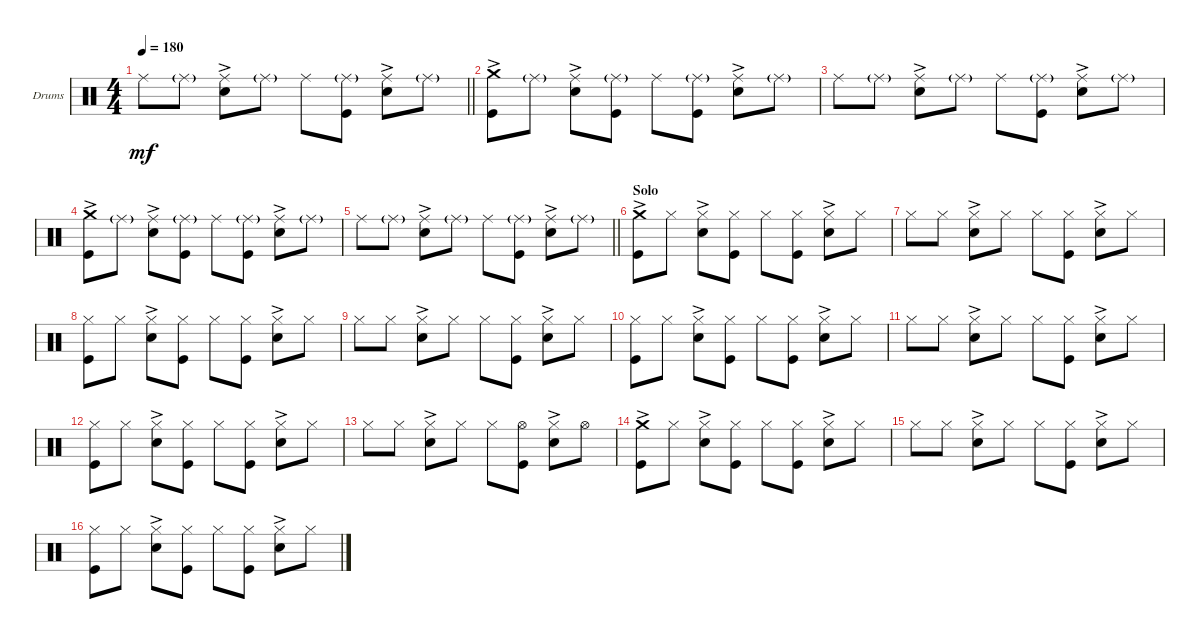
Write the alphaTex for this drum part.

\defaultSystemsLayout 4
\bracketExtendMode groupsimilarinstruments
\firstSystemTrackNameOrientation horizontal
\otherSystemsTrackNameOrientation horizontal
\track ("Will - Drumkit" "Drums") {instrument percussion}
\staff {score}
\articulation defaults
\ts (4 4)
\tempo 180
\clef neutral
\barLineRight lightlight
\ks c "Ride (middle)".8{dy mf} "Ride (middle)"{g}.8
("Ride (middle)" "Snare (hit) 2"{ac}).8 "Ride (middle)"{g}.8 "Ride (middle)".8 ("Ride (middle)"{g} "Kick (hit)").8 ("Ride (middle)" "Snare (hit) 2"{ac}).8 "Ride (middle)"{g}.8 |
("Crash medium (hit)"{ac} "Kick (hit)").8 "Ride (middle)"{g}.8 ("Ride (middle)" "Snare (hit) 2"{ac}).8 ("Ride (middle)"{g} "Kick (hit)").8 "Ride (middle)".8 ("Ride (middle)"{g} "Kick (hit)").8 ("Ride (middle)" "Snare (hit) 2"{ac}).8 "Ride (middle)"{g}.8 |
"Ride (middle)".8 "Ride (middle)"{g}.8 ("Ride (middle)" "Snare (hit) 2"{ac}).8 "Ride (middle)"{g}.8 "Ride (middle)".8 ("Ride (middle)"{g} "Kick (hit)").8 ("Ride (middle)" "Snare (hit) 2"{ac}).8 "Ride (middle)"{g}.8 |
("Kick (hit)" "Crash medium (hit)"{ac}).8 "Ride (middle)"{g}.8 ("Ride (middle)" "Snare (hit) 2"{ac}).8 ("Ride (middle)"{g} "Kick (hit)").8 "Ride (middle)".8 ("Ride (middle)"{g} "Kick (hit)").8 ("Ride (middle)" "Snare (hit) 2"{ac}).8 "Ride (middle)"{g}.8 |
\barLineRight lightlight "Ride (middle)".8 "Ride (middle)"{g}.8
("Ride (middle)" "Snare (hit) 2"{ac}).8 "Ride (middle)"{g}.8 "Ride (middle)".8 ("Ride (middle)"{g} "Kick (hit)").8 ("Ride (middle)" "Snare (hit) 2"{ac}).8 "Ride (middle)"{g}.8 |
\section ("" "Solo")
("Crash medium (hit)"{ac} "Kick (hit)").8 "Hi-Hat (closed)".8 ("Hi-Hat (closed)" "Snare (hit) 2"{ac}).8 ("Hi-Hat (closed)" "Kick (hit)").8 "Hi-Hat (closed)".8 ("Hi-Hat (closed)" "Kick (hit)").8 ("Hi-Hat (closed)" "Snare (hit) 2"{ac}).8 "Hi-Hat (closed)".8 |
"Hi-Hat (closed)".8 "Hi-Hat (closed)".8 ("Hi-Hat (closed)" "Snare (hit) 2"{ac}).8 "Hi-Hat (closed)".8 "Hi-Hat (closed)".8 ("Hi-Hat (closed)" "Kick (hit)").8 ("Hi-Hat (closed)" "Snare (hit) 2"{ac}).8 "Hi-Hat (closed)".8 |
("Kick (hit)" "Hi-Hat (closed)").8 "Hi-Hat (closed)".8 ("Hi-Hat (closed)" "Snare (hit) 2"{ac}).8 ("Hi-Hat (closed)" "Kick (hit)").8 "Hi-Hat (closed)".8 ("Hi-Hat (closed)" "Kick (hit)").8 ("Hi-Hat (closed)" "Snare (hit) 2"{ac}).8 "Hi-Hat (closed)".8 |
"Hi-Hat (closed)".8 "Hi-Hat (closed)".8 ("Hi-Hat (closed)" "Snare (hit) 2"{ac}).8 "Hi-Hat (closed)".8 "Hi-Hat (closed)".8 ("Hi-Hat (closed)" "Kick (hit)").8 ("Hi-Hat (closed)" "Snare (hit) 2"{ac}).8 "Hi-Hat (closed)".8 |
("Kick (hit)" "Hi-Hat (closed)").8 "Hi-Hat (closed)".8 ("Hi-Hat (closed)" "Snare (hit) 2"{ac}).8 ("Hi-Hat (closed)" "Kick (hit)").8 "Hi-Hat (closed)".8 ("Hi-Hat (closed)" "Kick (hit)").8 ("Hi-Hat (closed)" "Snare (hit) 2"{ac}).8 "Hi-Hat (closed)".8 |
"Hi-Hat (closed)".8 "Hi-Hat (closed)".8 ("Hi-Hat (closed)" "Snare (hit) 2"{ac}).8 "Hi-Hat (closed)".8 "Hi-Hat (closed)".8 ("Hi-Hat (closed)" "Kick (hit)").8 ("Hi-Hat (closed)" "Snare (hit) 2"{ac}).8 "Hi-Hat (closed)".8 |
("Kick (hit)" "Hi-Hat (closed)").8 "Hi-Hat (closed)".8 ("Hi-Hat (closed)" "Snare (hit) 2"{ac}).8 ("Hi-Hat (closed)" "Kick (hit)").8 "Hi-Hat (closed)".8 ("Hi-Hat (closed)" "Kick (hit)").8 ("Hi-Hat (closed)" "Snare (hit) 2"{ac}).8 "Hi-Hat (closed)".8 |
"Hi-Hat (closed)".8 "Hi-Hat (closed)".8 ("Hi-Hat (closed)" "Snare (hit) 2"{ac}).8 "Hi-Hat (closed)".8 "Hi-Hat (closed)".8 ("Hi-Hat (open)" "Kick (hit)").8 ("Hi-Hat (closed)" "Snare (hit) 2"{ac}).8 "Hi-Hat (open)".8 |
("Kick (hit)" "Crash medium (hit)"{ac}).8 "Hi-Hat (closed)".8 ("Hi-Hat (closed)" "Snare (hit) 2"{ac}).8 ("Hi-Hat (closed)" "Kick (hit)").8 "Hi-Hat (closed)".8 ("Hi-Hat (closed)" "Kick (hit)").8 ("Hi-Hat (closed)" "Snare (hit) 2"{ac}).8 "Hi-Hat (closed)".8 |
"Hi-Hat (closed)".8 "Hi-Hat (closed)".8 ("Hi-Hat (closed)" "Snare (hit) 2"{ac}).8 "Hi-Hat (closed)".8 "Hi-Hat (closed)".8 ("Hi-Hat (closed)" "Kick (hit)").8 ("Hi-Hat (closed)" "Snare (hit) 2"{ac}).8 "Hi-Hat (closed)".8 |
("Kick (hit)" "Hi-Hat (closed)").8 "Hi-Hat (closed)".8 ("Hi-Hat (closed)" "Snare (hit) 2"{ac}).8 ("Hi-Hat (closed)" "Kick (hit)").8 "Hi-Hat (closed)".8 ("Hi-Hat (closed)" "Kick (hit)").8 ("Hi-Hat (closed)" "Snare (hit) 2"{ac}).8 "Hi-Hat (closed)".8
